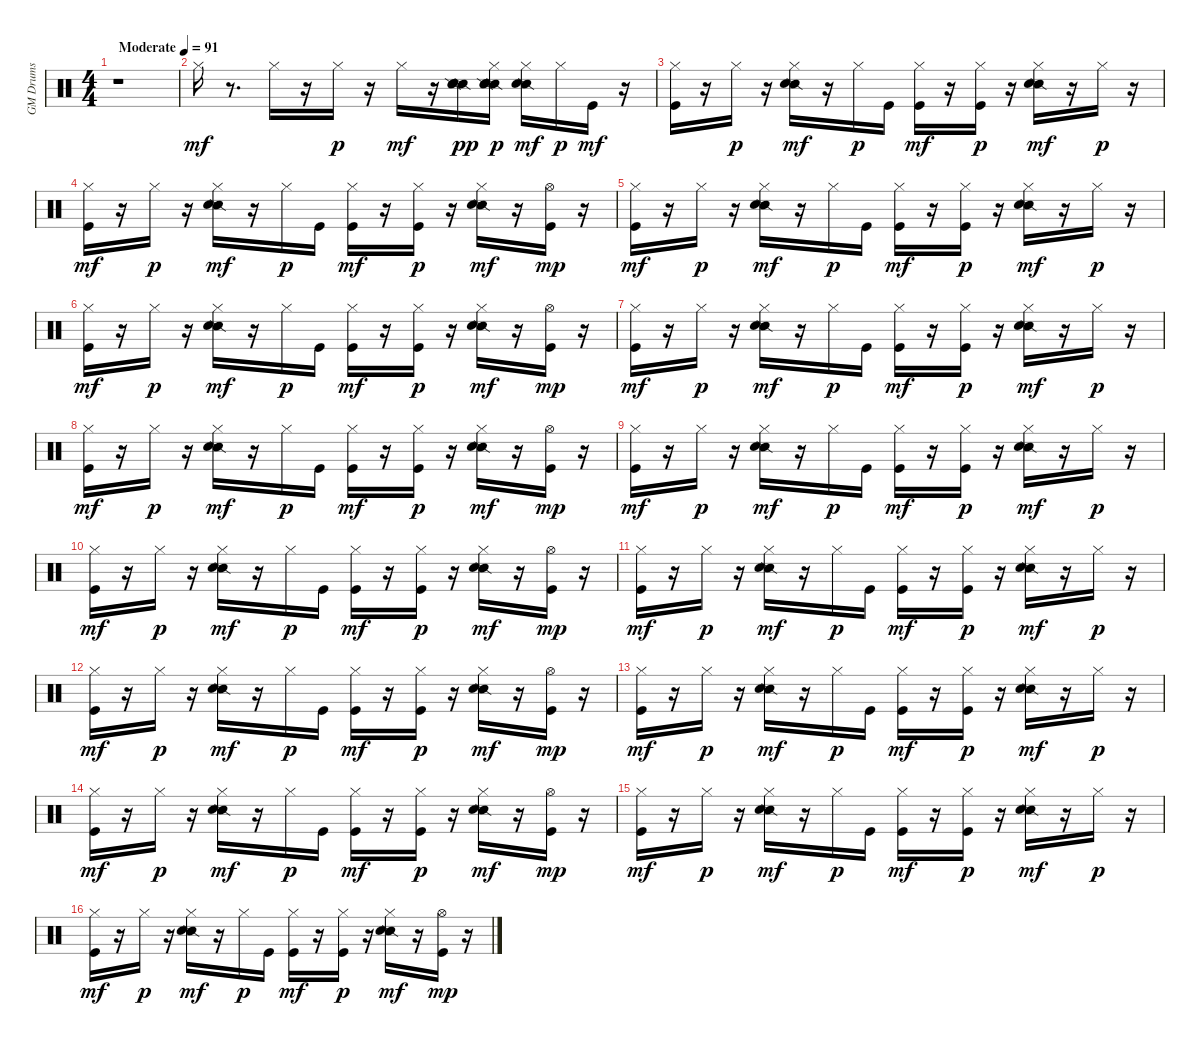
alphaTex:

\track ("GM Drums" "GM Drums") {instrument percussion}
\staff {score}
\articulation defaults
\ts (4 4)
\tempo (91 "Moderate")
\clef neutral
\ks c
r.1{dy mf} |
"Hi-Hat (closed)".16{volume 10} r.8{d} "Hi-Hat (closed)".16 r.16 "Hi-Hat (closed)".16{dy p} r.16 "Hi-Hat (closed)".16{dy mf} r.16 ("Snare (side stick) 2" "Electric Snare (hit)" "Snare (side stick) 2" "Electric Snare (hit)").16{dy pp} ("Snare (side stick) 2" "Electric Snare (hit)" "Hi-Hat (closed)" "Snare (side stick) 2" "Electric Snare (hit)").16{dy p} ("Snare (side stick) 2" "Electric Snare (hit)" "Hi-Hat (closed)").16{dy mf} "Hi-Hat (closed)".16{dy p} "Kick (hit)".16{dy mf} r.16 |
("Kick (hit)" "Hi-Hat (closed)").16 r.16 "Hi-Hat (closed)".16{dy p} r.16 ("Snare (side stick) 2" "Electric Snare (hit)" "Hi-Hat (closed)").16{dy mf} r.16 "Hi-Hat (closed)".16{dy p} "Kick (hit)".16 ("Kick (hit)" "Hi-Hat (closed)").16{dy mf} r.16 ("Kick (hit)" "Hi-Hat (closed)").16{dy p} r.16 ("Snare (side stick) 2" "Electric Snare (hit)" "Hi-Hat (closed)").16{dy mf} r.16 "Hi-Hat (closed)".16{dy p} r.16 |
("Kick (hit)" "Hi-Hat (closed)").16{dy mf} r.16 "Hi-Hat (closed)".16{dy p} r.16 ("Snare (side stick) 2" "Electric Snare (hit)" "Hi-Hat (closed)").16{dy mf} r.16 "Hi-Hat (closed)".16{dy p} "Kick (hit)".16 ("Kick (hit)" "Hi-Hat (closed)").16{dy mf} r.16 ("Kick (hit)" "Hi-Hat (closed)").16{dy p} r.16 ("Snare (side stick) 2" "Electric Snare (hit)" "Hi-Hat (closed)").16{dy mf} r.16 ("Kick (hit)" "Hi-Hat (open)").16{dy mp} r.16 |
("Kick (hit)" "Hi-Hat (closed)").16{dy mf} r.16 "Hi-Hat (closed)".16{dy p} r.16 ("Snare (side stick) 2" "Electric Snare (hit)" "Hi-Hat (closed)").16{dy mf} r.16 "Hi-Hat (closed)".16{dy p} "Kick (hit)".16 ("Kick (hit)" "Hi-Hat (closed)").16{dy mf} r.16 ("Kick (hit)" "Hi-Hat (closed)").16{dy p} r.16 ("Snare (side stick) 2" "Electric Snare (hit)" "Hi-Hat (closed)").16{dy mf} r.16 "Hi-Hat (closed)".16{dy p} r.16 |
("Kick (hit)" "Hi-Hat (closed)").16{dy mf} r.16 "Hi-Hat (closed)".16{dy p} r.16 ("Snare (side stick) 2" "Electric Snare (hit)" "Hi-Hat (closed)").16{dy mf} r.16 "Hi-Hat (closed)".16{dy p} "Kick (hit)".16 ("Kick (hit)" "Hi-Hat (closed)").16{dy mf} r.16 ("Kick (hit)" "Hi-Hat (closed)").16{dy p} r.16 ("Snare (side stick) 2" "Electric Snare (hit)" "Hi-Hat (closed)").16{dy mf} r.16 ("Kick (hit)" "Hi-Hat (open)").16{dy mp} r.16 |
("Kick (hit)" "Hi-Hat (closed)").16{dy mf} r.16 "Hi-Hat (closed)".16{dy p} r.16 ("Snare (side stick) 2" "Electric Snare (hit)" "Hi-Hat (closed)").16{dy mf} r.16 "Hi-Hat (closed)".16{dy p} "Kick (hit)".16 ("Kick (hit)" "Hi-Hat (closed)").16{dy mf} r.16 ("Kick (hit)" "Hi-Hat (closed)").16{dy p} r.16 ("Snare (side stick) 2" "Electric Snare (hit)" "Hi-Hat (closed)").16{dy mf} r.16 "Hi-Hat (closed)".16{dy p} r.16 |
("Kick (hit)" "Hi-Hat (closed)").16{dy mf} r.16 "Hi-Hat (closed)".16{dy p} r.16 ("Snare (side stick) 2" "Electric Snare (hit)" "Hi-Hat (closed)").16{dy mf} r.16 "Hi-Hat (closed)".16{dy p} "Kick (hit)".16 ("Kick (hit)" "Hi-Hat (closed)").16{dy mf} r.16 ("Kick (hit)" "Hi-Hat (closed)").16{dy p} r.16 ("Snare (side stick) 2" "Electric Snare (hit)" "Hi-Hat (closed)").16{dy mf} r.16 ("Kick (hit)" "Hi-Hat (open)").16{dy mp} r.16 |
("Kick (hit)" "Hi-Hat (closed)").16{dy mf} r.16 "Hi-Hat (closed)".16{dy p} r.16 ("Snare (side stick) 2" "Electric Snare (hit)" "Hi-Hat (closed)").16{dy mf} r.16 "Hi-Hat (closed)".16{dy p} "Kick (hit)".16 ("Kick (hit)" "Hi-Hat (closed)").16{dy mf} r.16 ("Kick (hit)" "Hi-Hat (closed)").16{dy p} r.16 ("Snare (side stick) 2" "Electric Snare (hit)" "Hi-Hat (closed)").16{dy mf} r.16 "Hi-Hat (closed)".16{dy p} r.16 |
("Kick (hit)" "Hi-Hat (closed)").16{dy mf} r.16 "Hi-Hat (closed)".16{dy p} r.16 ("Snare (side stick) 2" "Electric Snare (hit)" "Hi-Hat (closed)").16{dy mf} r.16 "Hi-Hat (closed)".16{dy p} "Kick (hit)".16 ("Kick (hit)" "Hi-Hat (closed)").16{dy mf} r.16 ("Kick (hit)" "Hi-Hat (closed)").16{dy p} r.16 ("Snare (side stick) 2" "Electric Snare (hit)" "Hi-Hat (closed)").16{dy mf} r.16 ("Kick (hit)" "Hi-Hat (open)").16{dy mp} r.16 |
("Kick (hit)" "Hi-Hat (closed)").16{dy mf} r.16 "Hi-Hat (closed)".16{dy p} r.16 ("Snare (side stick) 2" "Electric Snare (hit)" "Hi-Hat (closed)").16{dy mf} r.16 "Hi-Hat (closed)".16{dy p} "Kick (hit)".16 ("Kick (hit)" "Hi-Hat (closed)").16{dy mf} r.16 ("Kick (hit)" "Hi-Hat (closed)").16{dy p} r.16 ("Snare (side stick) 2" "Electric Snare (hit)" "Hi-Hat (closed)").16{dy mf} r.16 "Hi-Hat (closed)".16{dy p} r.16 |
("Kick (hit)" "Hi-Hat (closed)").16{dy mf} r.16 "Hi-Hat (closed)".16{dy p} r.16 ("Snare (side stick) 2" "Electric Snare (hit)" "Hi-Hat (closed)").16{dy mf} r.16 "Hi-Hat (closed)".16{dy p} "Kick (hit)".16 ("Kick (hit)" "Hi-Hat (closed)").16{dy mf} r.16 ("Kick (hit)" "Hi-Hat (closed)").16{dy p} r.16 ("Snare (side stick) 2" "Electric Snare (hit)" "Hi-Hat (closed)").16{dy mf} r.16 ("Kick (hit)" "Hi-Hat (open)").16{dy mp} r.16 |
("Kick (hit)" "Hi-Hat (closed)").16{dy mf} r.16 "Hi-Hat (closed)".16{dy p} r.16 ("Snare (side stick) 2" "Electric Snare (hit)" "Hi-Hat (closed)").16{dy mf} r.16 "Hi-Hat (closed)".16{dy p} "Kick (hit)".16 ("Kick (hit)" "Hi-Hat (closed)").16{dy mf} r.16 ("Kick (hit)" "Hi-Hat (closed)").16{dy p} r.16 ("Snare (side stick) 2" "Electric Snare (hit)" "Hi-Hat (closed)").16{dy mf} r.16 "Hi-Hat (closed)".16{dy p} r.16 |
("Kick (hit)" "Hi-Hat (closed)").16{dy mf} r.16 "Hi-Hat (closed)".16{dy p} r.16 ("Snare (side stick) 2" "Electric Snare (hit)" "Hi-Hat (closed)").16{dy mf} r.16 "Hi-Hat (closed)".16{dy p} "Kick (hit)".16 ("Kick (hit)" "Hi-Hat (closed)").16{dy mf} r.16 ("Kick (hit)" "Hi-Hat (closed)").16{dy p} r.16 ("Snare (side stick) 2" "Electric Snare (hit)" "Hi-Hat (closed)").16{dy mf} r.16 ("Kick (hit)" "Hi-Hat (open)").16{dy mp} r.16 |
("Kick (hit)" "Hi-Hat (closed)").16{dy mf} r.16 "Hi-Hat (closed)".16{dy p} r.16 ("Snare (side stick) 2" "Electric Snare (hit)" "Hi-Hat (closed)").16{dy mf} r.16 "Hi-Hat (closed)".16{dy p} "Kick (hit)".16 ("Kick (hit)" "Hi-Hat (closed)").16{dy mf} r.16 ("Kick (hit)" "Hi-Hat (closed)").16{dy p} r.16 ("Snare (side stick) 2" "Electric Snare (hit)" "Hi-Hat (closed)").16{dy mf} r.16 "Hi-Hat (closed)".16{dy p} r.16 |
("Kick (hit)" "Hi-Hat (closed)").16{dy mf} r.16 "Hi-Hat (closed)".16{dy p} r.16 ("Snare (side stick) 2" "Electric Snare (hit)" "Hi-Hat (closed)").16{dy mf} r.16 "Hi-Hat (closed)".16{dy p} "Kick (hit)".16 ("Kick (hit)" "Hi-Hat (closed)").16{dy mf} r.16 ("Kick (hit)" "Hi-Hat (closed)").16{dy p} r.16 ("Snare (side stick) 2" "Electric Snare (hit)" "Hi-Hat (closed)").16{dy mf} r.16 ("Kick (hit)" "Hi-Hat (open)").16{dy mp} r.16
